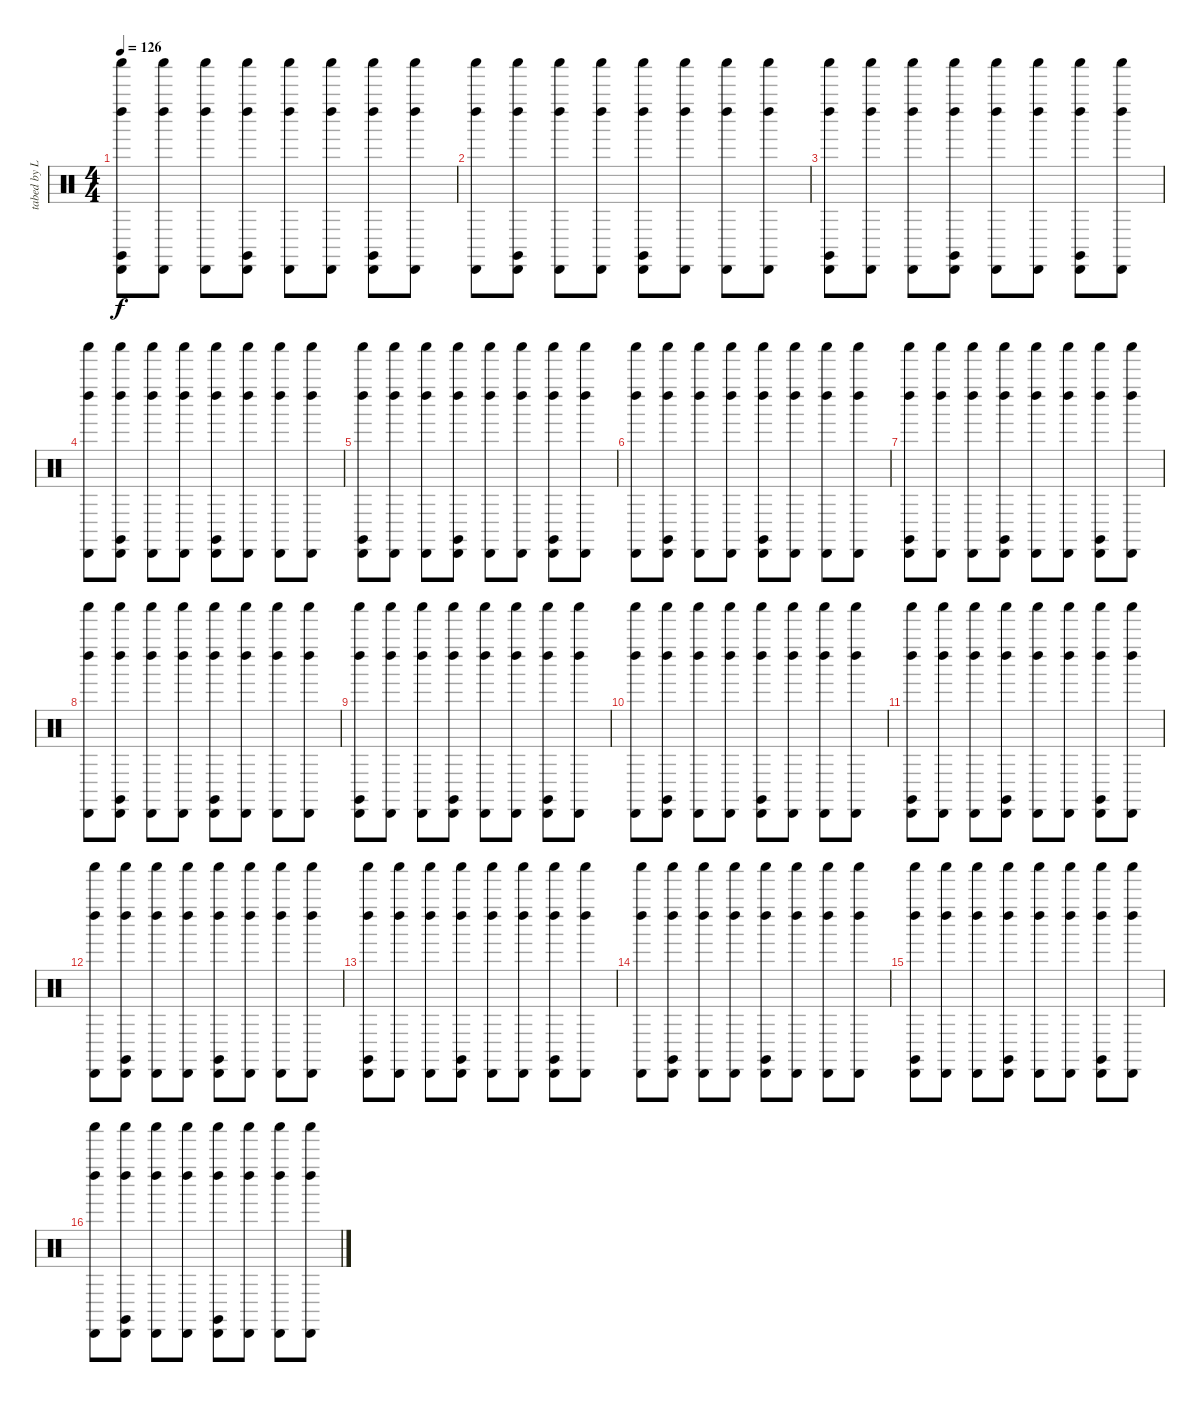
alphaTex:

\track ("tabed by Leonid" "tabed by L") {instrument percussion}
\staff {score}
\articulation defaults
\ts (4 4)
\tempo 126
\clef neutral
\ks c
("Left Maraca (hit)" "Cabasa (hit)" "Shaker (hit)" "Claves (hit)").8{dy f} ("Left Maraca (hit)" "Cabasa (hit)" "Shaker (hit)").8 ("Left Maraca (hit)" "Cabasa (hit)" "Shaker (hit)").8 ("Left Maraca (hit)" "Cabasa (hit)" "Shaker (hit)" "Claves (hit)").8 ("Left Maraca (hit)" "Cabasa (hit)" "Shaker (hit)").8 ("Left Maraca (hit)" "Cabasa (hit)" "Shaker (hit)").8 ("Left Maraca (hit)" "Cabasa (hit)" "Shaker (hit)" "Claves (hit)").8 ("Left Maraca (hit)" "Cabasa (hit)" "Shaker (hit)").8 |
("Shaker (hit)" "Cabasa (hit)" "Left Maraca (hit)").8 ("Shaker (hit)" "Cabasa (hit)" "Left Maraca (hit)" "Claves (hit)").8 ("Shaker (hit)" "Cabasa (hit)" "Left Maraca (hit)").8 ("Shaker (hit)" "Cabasa (hit)" "Left Maraca (hit)").8 ("Shaker (hit)" "Cabasa (hit)" "Left Maraca (hit)" "Claves (hit)").8 ("Shaker (hit)" "Cabasa (hit)" "Left Maraca (hit)").8 ("Shaker (hit)" "Cabasa (hit)" "Left Maraca (hit)").8 ("Shaker (hit)" "Cabasa (hit)" "Left Maraca (hit)").8 |
("Shaker (hit)" "Cabasa (hit)" "Left Maraca (hit)" "Claves (hit)").8 ("Shaker (hit)" "Cabasa (hit)" "Left Maraca (hit)").8 ("Shaker (hit)" "Cabasa (hit)" "Left Maraca (hit)").8 ("Shaker (hit)" "Cabasa (hit)" "Left Maraca (hit)" "Claves (hit)").8 ("Shaker (hit)" "Cabasa (hit)" "Left Maraca (hit)").8 ("Shaker (hit)" "Cabasa (hit)" "Left Maraca (hit)").8 ("Shaker (hit)" "Cabasa (hit)" "Left Maraca (hit)" "Claves (hit)").8 ("Shaker (hit)" "Cabasa (hit)" "Left Maraca (hit)").8 |
("Shaker (hit)" "Left Maraca (hit)" "Cabasa (hit)").8 ("Shaker (hit)" "Left Maraca (hit)" "Cabasa (hit)" "Claves (hit)").8 ("Shaker (hit)" "Left Maraca (hit)" "Cabasa (hit)").8 ("Shaker (hit)" "Left Maraca (hit)" "Cabasa (hit)").8 ("Shaker (hit)" "Left Maraca (hit)" "Cabasa (hit)" "Claves (hit)").8 ("Shaker (hit)" "Left Maraca (hit)" "Cabasa (hit)").8 ("Shaker (hit)" "Left Maraca (hit)" "Cabasa (hit)").8 ("Shaker (hit)" "Left Maraca (hit)" "Cabasa (hit)").8 |
("Shaker (hit)" "Left Maraca (hit)" "Cabasa (hit)" "Claves (hit)").8 ("Shaker (hit)" "Left Maraca (hit)" "Cabasa (hit)").8 ("Shaker (hit)" "Left Maraca (hit)" "Cabasa (hit)").8 ("Shaker (hit)" "Left Maraca (hit)" "Cabasa (hit)" "Claves (hit)").8 ("Shaker (hit)" "Left Maraca (hit)" "Cabasa (hit)").8 ("Shaker (hit)" "Left Maraca (hit)" "Cabasa (hit)").8 ("Shaker (hit)" "Left Maraca (hit)" "Cabasa (hit)" "Claves (hit)").8 ("Shaker (hit)" "Left Maraca (hit)" "Cabasa (hit)").8 |
("Left Maraca (hit)" "Cabasa (hit)" "Shaker (hit)").8 ("Left Maraca (hit)" "Cabasa (hit)" "Shaker (hit)" "Claves (hit)").8 ("Left Maraca (hit)" "Cabasa (hit)" "Shaker (hit)").8 ("Left Maraca (hit)" "Cabasa (hit)" "Shaker (hit)").8 ("Left Maraca (hit)" "Cabasa (hit)" "Shaker (hit)" "Claves (hit)").8 ("Left Maraca (hit)" "Cabasa (hit)" "Shaker (hit)").8 ("Left Maraca (hit)" "Cabasa (hit)" "Shaker (hit)").8 ("Left Maraca (hit)" "Cabasa (hit)" "Shaker (hit)").8 |
("Left Maraca (hit)" "Cabasa (hit)" "Shaker (hit)" "Claves (hit)").8 ("Left Maraca (hit)" "Cabasa (hit)" "Shaker (hit)").8 ("Left Maraca (hit)" "Cabasa (hit)" "Shaker (hit)").8 ("Left Maraca (hit)" "Cabasa (hit)" "Shaker (hit)" "Claves (hit)").8 ("Left Maraca (hit)" "Cabasa (hit)" "Shaker (hit)").8 ("Left Maraca (hit)" "Cabasa (hit)" "Shaker (hit)").8 ("Left Maraca (hit)" "Cabasa (hit)" "Shaker (hit)" "Claves (hit)").8 ("Left Maraca (hit)" "Cabasa (hit)" "Shaker (hit)").8 |
("Cabasa (hit)" "Left Maraca (hit)" "Shaker (hit)").8 ("Cabasa (hit)" "Left Maraca (hit)" "Shaker (hit)" "Claves (hit)").8 ("Cabasa (hit)" "Left Maraca (hit)" "Shaker (hit)").8 ("Cabasa (hit)" "Left Maraca (hit)" "Shaker (hit)").8 ("Cabasa (hit)" "Left Maraca (hit)" "Shaker (hit)" "Claves (hit)").8 ("Cabasa (hit)" "Left Maraca (hit)" "Shaker (hit)").8 ("Cabasa (hit)" "Left Maraca (hit)" "Shaker (hit)").8 ("Cabasa (hit)" "Left Maraca (hit)" "Shaker (hit)").8 |
("Cabasa (hit)" "Left Maraca (hit)" "Shaker (hit)" "Claves (hit)").8 ("Cabasa (hit)" "Left Maraca (hit)" "Shaker (hit)").8 ("Cabasa (hit)" "Left Maraca (hit)" "Shaker (hit)").8 ("Cabasa (hit)" "Left Maraca (hit)" "Shaker (hit)" "Claves (hit)").8 ("Cabasa (hit)" "Left Maraca (hit)" "Shaker (hit)").8 ("Cabasa (hit)" "Left Maraca (hit)" "Shaker (hit)").8 ("Cabasa (hit)" "Left Maraca (hit)" "Shaker (hit)" "Claves (hit)").8 ("Cabasa (hit)" "Left Maraca (hit)" "Shaker (hit)").8 |
("Shaker (hit)" "Cabasa (hit)" "Left Maraca (hit)").8 ("Shaker (hit)" "Cabasa (hit)" "Left Maraca (hit)" "Claves (hit)").8 ("Shaker (hit)" "Cabasa (hit)" "Left Maraca (hit)").8 ("Shaker (hit)" "Cabasa (hit)" "Left Maraca (hit)").8 ("Shaker (hit)" "Cabasa (hit)" "Left Maraca (hit)" "Claves (hit)").8 ("Shaker (hit)" "Cabasa (hit)" "Left Maraca (hit)").8 ("Shaker (hit)" "Cabasa (hit)" "Left Maraca (hit)").8 ("Shaker (hit)" "Cabasa (hit)" "Left Maraca (hit)").8 |
("Shaker (hit)" "Cabasa (hit)" "Left Maraca (hit)" "Claves (hit)").8 ("Shaker (hit)" "Cabasa (hit)" "Left Maraca (hit)").8 ("Shaker (hit)" "Cabasa (hit)" "Left Maraca (hit)").8 ("Shaker (hit)" "Cabasa (hit)" "Left Maraca (hit)" "Claves (hit)").8 ("Shaker (hit)" "Cabasa (hit)" "Left Maraca (hit)").8 ("Shaker (hit)" "Cabasa (hit)" "Left Maraca (hit)").8 ("Shaker (hit)" "Cabasa (hit)" "Left Maraca (hit)" "Claves (hit)").8 ("Shaker (hit)" "Cabasa (hit)" "Left Maraca (hit)").8 |
("Cabasa (hit)" "Shaker (hit)" "Left Maraca (hit)").8 ("Cabasa (hit)" "Shaker (hit)" "Left Maraca (hit)" "Claves (hit)").8 ("Cabasa (hit)" "Shaker (hit)" "Left Maraca (hit)").8 ("Cabasa (hit)" "Shaker (hit)" "Left Maraca (hit)").8 ("Cabasa (hit)" "Shaker (hit)" "Left Maraca (hit)" "Claves (hit)").8 ("Cabasa (hit)" "Shaker (hit)" "Left Maraca (hit)").8 ("Cabasa (hit)" "Shaker (hit)" "Left Maraca (hit)").8 ("Cabasa (hit)" "Shaker (hit)" "Left Maraca (hit)").8 |
("Cabasa (hit)" "Shaker (hit)" "Left Maraca (hit)" "Claves (hit)").8 ("Cabasa (hit)" "Shaker (hit)" "Left Maraca (hit)").8 ("Cabasa (hit)" "Shaker (hit)" "Left Maraca (hit)").8 ("Cabasa (hit)" "Shaker (hit)" "Left Maraca (hit)" "Claves (hit)").8 ("Cabasa (hit)" "Shaker (hit)" "Left Maraca (hit)").8 ("Cabasa (hit)" "Shaker (hit)" "Left Maraca (hit)").8 ("Cabasa (hit)" "Shaker (hit)" "Left Maraca (hit)" "Claves (hit)").8 ("Cabasa (hit)" "Shaker (hit)" "Left Maraca (hit)").8 |
("Left Maraca (hit)" "Cabasa (hit)" "Shaker (hit)").8 ("Left Maraca (hit)" "Cabasa (hit)" "Shaker (hit)" "Claves (hit)").8 ("Left Maraca (hit)" "Cabasa (hit)" "Shaker (hit)").8 ("Left Maraca (hit)" "Cabasa (hit)" "Shaker (hit)").8 ("Left Maraca (hit)" "Cabasa (hit)" "Shaker (hit)" "Claves (hit)").8 ("Left Maraca (hit)" "Cabasa (hit)" "Shaker (hit)").8 ("Left Maraca (hit)" "Cabasa (hit)" "Shaker (hit)").8 ("Left Maraca (hit)" "Cabasa (hit)" "Shaker (hit)").8 |
("Left Maraca (hit)" "Cabasa (hit)" "Shaker (hit)" "Claves (hit)").8 ("Left Maraca (hit)" "Cabasa (hit)" "Shaker (hit)").8 ("Left Maraca (hit)" "Cabasa (hit)" "Shaker (hit)").8 ("Left Maraca (hit)" "Cabasa (hit)" "Shaker (hit)" "Claves (hit)").8 ("Left Maraca (hit)" "Cabasa (hit)" "Shaker (hit)").8 ("Left Maraca (hit)" "Cabasa (hit)" "Shaker (hit)").8 ("Left Maraca (hit)" "Cabasa (hit)" "Shaker (hit)" "Claves (hit)").8 ("Left Maraca (hit)" "Cabasa (hit)" "Shaker (hit)").8 |
("Cabasa (hit)" "Left Maraca (hit)" "Shaker (hit)").8 ("Cabasa (hit)" "Left Maraca (hit)" "Shaker (hit)" "Claves (hit)").8 ("Cabasa (hit)" "Left Maraca (hit)" "Shaker (hit)").8 ("Cabasa (hit)" "Left Maraca (hit)" "Shaker (hit)").8 ("Cabasa (hit)" "Left Maraca (hit)" "Shaker (hit)" "Claves (hit)").8 ("Cabasa (hit)" "Left Maraca (hit)" "Shaker (hit)").8 ("Cabasa (hit)" "Left Maraca (hit)" "Shaker (hit)").8 ("Cabasa (hit)" "Left Maraca (hit)" "Shaker (hit)").8
